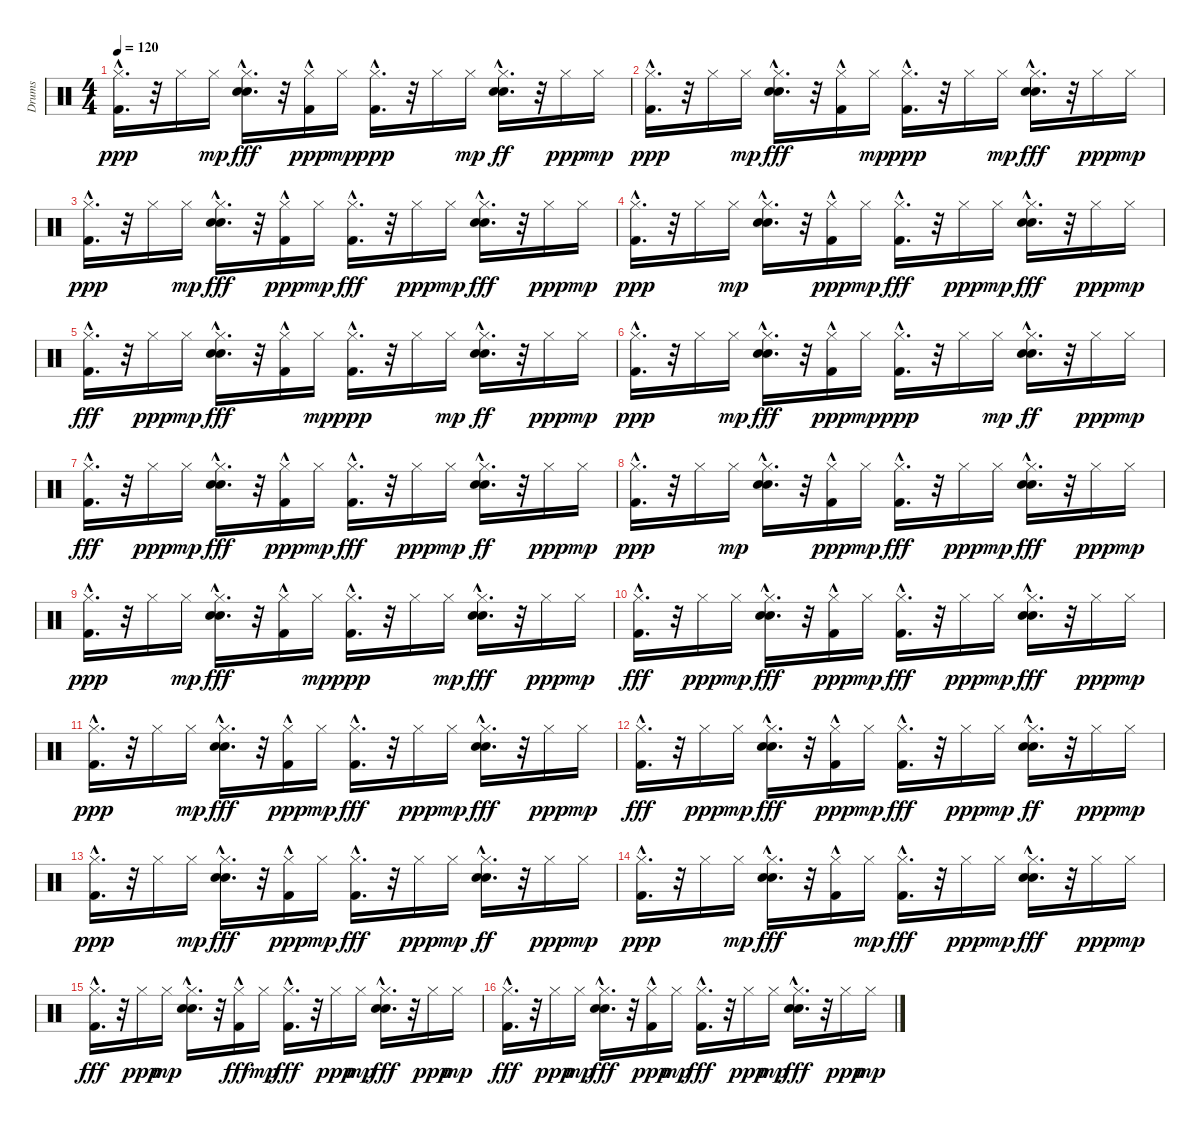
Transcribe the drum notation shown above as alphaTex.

\track ("Drums" "Drums") {instrument percussion}
\staff {score}
\articulation defaults
\ts (4 4)
\tempo 120
\clef neutral
\ks c
("Kick (hit) 2"{hac} "Hi-Hat (closed)"{hac}).16{d dy ppp} r.32 "Hi-Hat (closed)".16 "Hi-Hat (closed)".16{dy mp} ("Snare (hit) 2"{hac} "Hi-Hat (closed)"{hac} "Hand Clap (hit)"{hac}).16{d dy fff} r.32 ("Kick (hit) 2"{hac} "Hi-Hat (closed)").16{dy ppp} "Hi-Hat (closed)".16{dy mp} ("Kick (hit) 2"{hac} "Hi-Hat (closed)"{hac}).16{d dy ppp} r.32 "Hi-Hat (closed)".16 "Hi-Hat (closed)".16{dy mp} ("Hand Clap (hit)"{hac} "Snare (hit) 2"{hac} "Hi-Hat (closed)"{hac}).16{d dy ff} r.32 "Hi-Hat (closed)".16{dy ppp} "Hi-Hat (closed)".16{dy mp} |
("Kick (hit) 2"{hac} "Hi-Hat (closed)"{hac}).16{d dy ppp} r.32 "Hi-Hat (closed)".16 "Hi-Hat (closed)".16{dy mp} ("Hi-Hat (closed)"{hac} "Hand Clap (hit)"{hac} "Snare (hit) 2"{hac}).16{d dy fff} r.32 ("Hi-Hat (closed)" "Kick (hit) 2"{hac}).16 "Hi-Hat (closed)".16{dy mp} ("Kick (hit) 2"{hac} "Hi-Hat (closed)"{hac}).16{d dy ppp} r.32 "Hi-Hat (closed)".16 "Hi-Hat (closed)".16{dy mp} ("Hand Clap (hit)"{hac} "Hi-Hat (closed)"{hac} "Snare (hit) 2"{hac}).16{d dy fff} r.32 "Hi-Hat (closed)".16{dy ppp} "Hi-Hat (closed)".16{dy mp} |
("Kick (hit) 2"{hac} "Hi-Hat (closed)"{hac}).16{d dy ppp} r.32 "Hi-Hat (closed)".16 "Hi-Hat (closed)".16{dy mp} ("Hi-Hat (closed)"{hac} "Hand Clap (hit)"{hac} "Snare (hit) 2"{hac}).16{d dy fff} r.32 ("Kick (hit) 2"{hac} "Hi-Hat (closed)").16{dy ppp} "Hi-Hat (closed)".16{dy mp} ("Hi-Hat (closed)"{hac} "Kick (hit) 2"{hac}).16{d dy fff} r.32 "Hi-Hat (closed)".16{dy ppp} "Hi-Hat (closed)".16{dy mp} ("Hi-Hat (closed)"{hac} "Hand Clap (hit)"{hac} "Snare (hit) 2"{hac}).16{d dy fff} r.32 "Hi-Hat (closed)".16{dy ppp} "Hi-Hat (closed)".16{dy mp} |
("Kick (hit) 2"{hac} "Hi-Hat (closed)"{hac}).16{d dy ppp} r.32 "Hi-Hat (closed)".16 "Hi-Hat (closed)".16{dy mp} ("Snare (hit) 2"{hac} "Hand Clap (hit)"{hac} "Hi-Hat (closed)"{hac}).16{d} r.32 ("Kick (hit) 2"{hac} "Hi-Hat (closed)").16{dy ppp} "Hi-Hat (closed)".16{dy mp} ("Hi-Hat (closed)"{hac} "Kick (hit) 2"{hac}).16{d dy fff} r.32 "Hi-Hat (closed)".16{dy ppp} "Hi-Hat (closed)".16{dy mp} ("Hand Clap (hit)"{hac} "Hi-Hat (closed)"{hac} "Snare (hit) 2"{hac}).16{d dy fff} r.32 "Hi-Hat (closed)".16{dy ppp} "Hi-Hat (closed)".16{dy mp} |
("Hi-Hat (closed)"{hac} "Kick (hit) 2"{hac}).16{d dy fff} r.32 "Hi-Hat (closed)".16{dy ppp} "Hi-Hat (closed)".16{dy mp} ("Hi-Hat (closed)"{hac} "Hand Clap (hit)"{hac} "Snare (hit) 2"{hac}).16{d dy fff} r.32 ("Hi-Hat (closed)" "Kick (hit) 2"{hac}).16 "Hi-Hat (closed)".16{dy mp} ("Kick (hit) 2"{hac} "Hi-Hat (closed)"{hac}).16{d dy ppp} r.32 "Hi-Hat (closed)".16 "Hi-Hat (closed)".16{dy mp} ("Snare (hit) 2"{hac} "Hand Clap (hit)"{hac} "Hi-Hat (closed)"{hac}).16{d dy ff} r.32 "Hi-Hat (closed)".16{dy ppp} "Hi-Hat (closed)".16{dy mp} |
("Kick (hit) 2"{hac} "Hi-Hat (closed)"{hac}).16{d dy ppp} r.32 "Hi-Hat (closed)".16 "Hi-Hat (closed)".16{dy mp} ("Hand Clap (hit)"{hac} "Hi-Hat (closed)"{hac} "Snare (hit) 2"{hac}).16{d dy fff} r.32 ("Kick (hit) 2"{hac} "Hi-Hat (closed)").16{dy ppp} "Hi-Hat (closed)".16{dy mp} ("Kick (hit) 2"{hac} "Hi-Hat (closed)"{hac}).16{d dy ppp} r.32 "Hi-Hat (closed)".16 "Hi-Hat (closed)".16{dy mp} ("Hand Clap (hit)"{hac} "Snare (hit) 2"{hac} "Hi-Hat (closed)"{hac}).16{d dy ff} r.32 "Hi-Hat (closed)".16{dy ppp} "Hi-Hat (closed)".16{dy mp} |
("Hi-Hat (closed)"{hac} "Kick (hit) 2"{hac}).16{d dy fff} r.32 "Hi-Hat (closed)".16{dy ppp} "Hi-Hat (closed)".16{dy mp} ("Hi-Hat (closed)"{hac} "Hand Clap (hit)"{hac} "Snare (hit) 2"{hac}).16{d dy fff} r.32 ("Kick (hit) 2"{hac} "Hi-Hat (closed)").16{dy ppp} "Hi-Hat (closed)".16{dy mp} ("Hi-Hat (closed)"{hac} "Kick (hit) 2"{hac}).16{d dy fff} r.32 "Hi-Hat (closed)".16{dy ppp} "Hi-Hat (closed)".16{dy mp} ("Hand Clap (hit)"{hac} "Snare (hit) 2"{hac} "Hi-Hat (closed)"{hac}).16{d dy ff} r.32 "Hi-Hat (closed)".16{dy ppp} "Hi-Hat (closed)".16{dy mp} |
("Kick (hit) 2"{hac} "Hi-Hat (closed)"{hac}).16{d dy ppp} r.32 "Hi-Hat (closed)".16 "Hi-Hat (closed)".16{dy mp} ("Hand Clap (hit)"{hac} "Snare (hit) 2"{hac} "Hi-Hat (closed)"{hac}).16{d} r.32 ("Kick (hit) 2"{hac} "Hi-Hat (closed)").16{dy ppp} "Hi-Hat (closed)".16{dy mp} ("Hi-Hat (closed)"{hac} "Kick (hit) 2"{hac}).16{d dy fff} r.32 "Hi-Hat (closed)".16{dy ppp} "Hi-Hat (closed)".16{dy mp} ("Hand Clap (hit)"{hac} "Hi-Hat (closed)"{hac} "Snare (hit) 2"{hac}).16{d dy fff} r.32 "Hi-Hat (closed)".16{dy ppp} "Hi-Hat (closed)".16{dy mp} |
("Kick (hit) 2"{hac} "Hi-Hat (closed)"{hac}).16{d dy ppp} r.32 "Hi-Hat (closed)".16 "Hi-Hat (closed)".16{dy mp} ("Snare (hit) 2"{hac} "Hi-Hat (closed)"{hac} "Hand Clap (hit)"{hac}).16{d dy fff} r.32 ("Hi-Hat (closed)" "Kick (hit) 2"{hac}).16 "Hi-Hat (closed)".16{dy mp} ("Kick (hit) 2"{hac} "Hi-Hat (closed)"{hac}).16{d dy ppp} r.32 "Hi-Hat (closed)".16 "Hi-Hat (closed)".16{dy mp} ("Hi-Hat (closed)"{hac} "Hand Clap (hit)"{hac} "Snare (hit) 2"{hac}).16{d dy fff} r.32 "Hi-Hat (closed)".16{dy ppp} "Hi-Hat (closed)".16{dy mp} |
("Hi-Hat (closed)"{hac} "Kick (hit) 2"{hac}).16{d dy fff} r.32 "Hi-Hat (closed)".16{dy ppp} "Hi-Hat (closed)".16{dy mp} ("Hi-Hat (closed)"{hac} "Snare (hit) 2"{hac} "Hand Clap (hit)"{hac}).16{d dy fff} r.32 ("Kick (hit) 2"{hac} "Hi-Hat (closed)").16{dy ppp} "Hi-Hat (closed)".16{dy mp} ("Hi-Hat (closed)"{hac} "Kick (hit) 2"{hac}).16{d dy fff} r.32 "Hi-Hat (closed)".16{dy ppp} "Hi-Hat (closed)".16{dy mp} ("Hand Clap (hit)"{hac} "Hi-Hat (closed)"{hac} "Snare (hit) 2"{hac}).16{d dy fff} r.32 "Hi-Hat (closed)".16{dy ppp} "Hi-Hat (closed)".16{dy mp} |
("Kick (hit) 2"{hac} "Hi-Hat (closed)"{hac}).16{d dy ppp} r.32 "Hi-Hat (closed)".16 "Hi-Hat (closed)".16{dy mp} ("Hand Clap (hit)"{hac} "Hi-Hat (closed)"{hac} "Snare (hit) 2"{hac}).16{d dy fff} r.32 ("Kick (hit) 2"{hac} "Hi-Hat (closed)").16{dy ppp} "Hi-Hat (closed)".16{dy mp} ("Hi-Hat (closed)"{hac} "Kick (hit) 2"{hac}).16{d dy fff} r.32 "Hi-Hat (closed)".16{dy ppp} "Hi-Hat (closed)".16{dy mp} ("Hi-Hat (closed)"{hac} "Snare (hit) 2"{hac} "Hand Clap (hit)"{hac}).16{d dy fff} r.32 "Hi-Hat (closed)".16{dy ppp} "Hi-Hat (closed)".16{dy mp} |
("Hi-Hat (closed)"{hac} "Kick (hit) 2"{hac}).16{d dy fff} r.32 "Hi-Hat (closed)".16{dy ppp} "Hi-Hat (closed)".16{dy mp} ("Hi-Hat (closed)"{hac} "Hand Clap (hit)"{hac} "Snare (hit) 2"{hac}).16{d dy fff} r.32 ("Kick (hit) 2"{hac} "Hi-Hat (closed)").16{dy ppp} "Hi-Hat (closed)".16{dy mp} ("Hi-Hat (closed)"{hac} "Kick (hit) 2"{hac}).16{d dy fff} r.32 "Hi-Hat (closed)".16{dy ppp} "Hi-Hat (closed)".16{dy mp} ("Snare (hit) 2"{hac} "Hand Clap (hit)"{hac} "Hi-Hat (closed)"{hac}).16{d dy ff} r.32 "Hi-Hat (closed)".16{dy ppp} "Hi-Hat (closed)".16{dy mp} |
("Kick (hit) 2"{hac} "Hi-Hat (closed)"{hac}).16{d dy ppp} r.32 "Hi-Hat (closed)".16 "Hi-Hat (closed)".16{dy mp} ("Snare (hit) 2"{hac} "Hi-Hat (closed)"{hac} "Hand Clap (hit)"{hac}).16{d dy fff} r.32 ("Kick (hit) 2"{hac} "Hi-Hat (closed)").16{dy ppp} "Hi-Hat (closed)".16{dy mp} ("Hi-Hat (closed)"{hac} "Kick (hit) 2"{hac}).16{d dy fff} r.32 "Hi-Hat (closed)".16{dy ppp} "Hi-Hat (closed)".16{dy mp} ("Snare (hit) 2"{hac} "Hand Clap (hit)"{hac} "Hi-Hat (closed)"{hac}).16{d dy ff} r.32 "Hi-Hat (closed)".16{dy ppp} "Hi-Hat (closed)".16{dy mp} |
("Kick (hit) 2"{hac} "Hi-Hat (closed)"{hac}).16{d dy ppp} r.32 "Hi-Hat (closed)".16 "Hi-Hat (closed)".16{dy mp} ("Hi-Hat (closed)"{hac} "Snare (hit) 2"{hac} "Hand Clap (hit)"{hac}).16{d dy fff} r.32 ("Hi-Hat (closed)" "Kick (hit) 2"{hac}).16 "Hi-Hat (closed)".16{dy mp} ("Hi-Hat (closed)"{hac} "Kick (hit) 2"{hac}).16{d dy fff} r.32 "Hi-Hat (closed)".16{dy ppp} "Hi-Hat (closed)".16{dy mp} ("Snare (hit) 2"{hac} "Hi-Hat (closed)"{hac} "Hand Clap (hit)"{hac}).16{d dy fff} r.32 "Hi-Hat (closed)".16{dy ppp} "Hi-Hat (closed)".16{dy mp} |
("Hi-Hat (closed)"{hac} "Kick (hit) 2"{hac}).16{d dy fff} r.32 "Hi-Hat (closed)".16{dy ppp} "Hi-Hat (closed)".16{dy mp} ("Hand Clap (hit)"{hac} "Snare (hit) 2"{hac} "Hi-Hat (closed)"{hac}).16{d} r.32 ("Hi-Hat (closed)" "Kick (hit) 2"{hac}).16{dy fff} "Hi-Hat (closed)".16{dy mp} ("Hi-Hat (closed)"{hac} "Kick (hit) 2"{hac}).16{d dy fff} r.32 "Hi-Hat (closed)".16{dy ppp} "Hi-Hat (closed)".16{dy mp} ("Hi-Hat (closed)"{hac} "Hand Clap (hit)"{hac} "Snare (hit) 2"{hac}).16{d dy fff} r.32 "Hi-Hat (closed)".16{dy ppp} "Hi-Hat (closed)".16{dy mp} |
("Hi-Hat (closed)"{hac} "Kick (hit) 2"{hac}).16{d dy fff} r.32 "Hi-Hat (closed)".16{dy ppp} "Hi-Hat (closed)".16{dy mp} ("Snare (hit) 2"{hac} "Hi-Hat (closed)"{hac} "Hand Clap (hit)"{hac}).16{d dy fff} r.32 ("Kick (hit) 2"{hac} "Hi-Hat (closed)").16{dy ppp} "Hi-Hat (closed)".16{dy mp} ("Hi-Hat (closed)"{hac} "Kick (hit) 2"{hac}).16{d dy fff} r.32 "Hi-Hat (closed)".16{dy ppp} "Hi-Hat (closed)".16{dy mp} ("Snare (hit) 2"{hac} "Hi-Hat (closed)"{hac} "Hand Clap (hit)"{hac}).16{d dy fff} r.32 "Hi-Hat (closed)".16{dy ppp} "Hi-Hat (closed)".16{dy mp}
